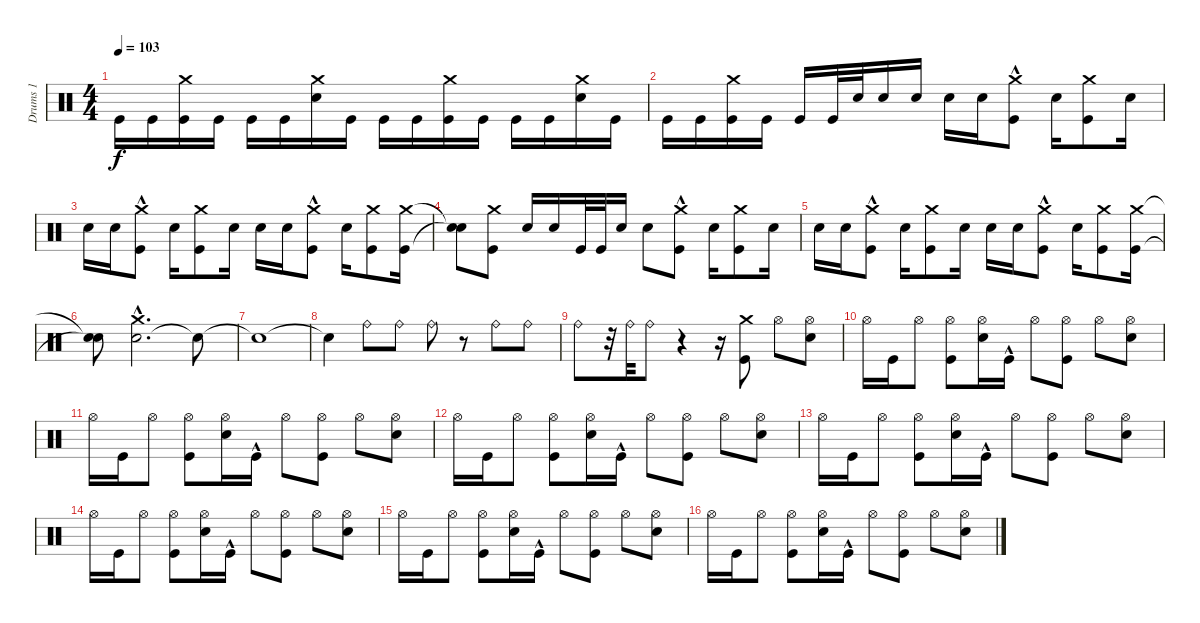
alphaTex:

\track ("Drums 1" "Drums 1") {instrument percussion}
\staff {score}
\articulation defaults
\ts (4 4)
\tempo 103
\clef neutral
\ks c "Kick (hit)".16{dy f} "Kick (hit)".16
("Kick (hit)" "Crash medium (hit)").16 "Kick (hit)".16 "Kick (hit)".16 "Kick (hit)".16 ("Electric Snare (hit)" "Crash medium (hit)").16 "Kick (hit)".16 "Kick (hit)".16 "Kick (hit)".16 ("Kick (hit)" "Crash medium (hit)").16 "Kick (hit)".16 "Kick (hit)".16 "Kick (hit)".16 ("Electric Snare (hit)" "Crash medium (hit)").16 "Kick (hit)".16 |
"Kick (hit)".16 "Kick (hit)".16 ("Kick (hit)" "Crash medium (hit)").16 "Kick (hit)".16 "Kick (hit)".16 "Kick (hit)".32 "Electric Snare (hit)".32 "Electric Snare (hit)".16 "Electric Snare (hit)".16 "Electric Snare (hit)".16 "Electric Snare (hit)".16 ("Kick (hit)"{hac} "Crash medium (hit)").8 "Electric Snare (hit)".16 ("Kick (hit)" "Crash medium (hit)").8 "Electric Snare (hit)".16 |
"Electric Snare (hit)".16 "Electric Snare (hit)".16 ("Kick (hit)"{hac} "Crash medium (hit)").8 "Electric Snare (hit)".16 ("Crash medium (hit)" "Kick (hit)").8 "Electric Snare (hit)".16 "Electric Snare (hit)".16 "Electric Snare (hit)".16 ("Kick (hit)"{hac} "Crash medium (hit)").8 "Electric Snare (hit)".16 ("Kick (hit)" "Crash medium (hit)").8 ("Kick (hit)" "Crash medium (hit)").16 |
("Snare (hit)"{t} "Snare (hit)"{t}).8 ("Kick (hit)" "Crash medium (hit)").8 "Electric Snare (hit)".16 "Electric Snare (hit)".16 "Kick (hit)".32 "Kick (hit)".32 "Electric Snare (hit)".16 "Electric Snare (hit)".8 ("Kick (hit)"{hac} "Crash medium (hit)").8 "Electric Snare (hit)".16 ("Kick (hit)" "Crash medium (hit)").8 "Electric Snare (hit)".16 |
"Electric Snare (hit)".16 "Electric Snare (hit)".16 ("Kick (hit)"{hac} "Crash medium (hit)").8 "Electric Snare (hit)".16 ("Crash medium (hit)" "Kick (hit)").8 "Electric Snare (hit)".16 "Electric Snare (hit)".16 "Electric Snare (hit)".16 ("Kick (hit)"{hac} "Crash medium (hit)").8 "Electric Snare (hit)".16 ("Kick (hit)" "Crash medium (hit)").8 ("Kick (hit)" "Crash medium (hit)").16 |
("Snare (hit)"{t} "Snare (hit)"{t}).8 ("Electric Snare (hit)" "Crash medium (hit)"{hac}).2{d} "Snare (hit)"{t}.8 |
"Snare (hit)"{t}.1 |
"Snare (hit)"{t}.4 "Ride (bell)".8 "Ride (bell)".8 "Ride (bell)".8 r.8 "Ride (bell)".8 "Ride (bell)".8 |
"Ride (bell)".8 r.32 "Ride (bell)".32 "Ride (bell)".8 r.4 r.16 ("Kick (hit)" "Crash medium (hit)").8 "Hi-Hat (open)".8 ("Electric Snare (hit)" "Hi-Hat (open)").8 |
"Hi-Hat (open)".16 "Kick (hit)".16 "Hi-Hat (open)".8 ("Kick (hit)" "Hi-Hat (open)").8 ("Electric Snare (hit)" "Hi-Hat (open)").16 "Kick (hit)"{hac}.16 "Hi-Hat (open)".8 ("Kick (hit)" "Hi-Hat (open)").8 "Hi-Hat (open)".8 ("Electric Snare (hit)" "Hi-Hat (open)").8 |
"Hi-Hat (open)".16 "Kick (hit)".16 "Hi-Hat (open)".8 ("Kick (hit)" "Hi-Hat (open)").8 ("Electric Snare (hit)" "Hi-Hat (open)").16 "Kick (hit)"{hac}.16 "Hi-Hat (open)".8 ("Kick (hit)" "Hi-Hat (open)").8 "Hi-Hat (open)".8 ("Electric Snare (hit)" "Hi-Hat (open)").8 |
"Hi-Hat (open)".16 "Kick (hit)".16 "Hi-Hat (open)".8 ("Kick (hit)" "Hi-Hat (open)").8 ("Electric Snare (hit)" "Hi-Hat (open)").16 "Kick (hit)"{hac}.16 "Hi-Hat (open)".8 ("Kick (hit)" "Hi-Hat (open)").8 "Hi-Hat (open)".8 ("Electric Snare (hit)" "Hi-Hat (open)").8 |
"Hi-Hat (open)".16 "Kick (hit)".16 "Hi-Hat (open)".8 ("Kick (hit)" "Hi-Hat (open)").8 ("Electric Snare (hit)" "Hi-Hat (open)").16 "Kick (hit)"{hac}.16 "Hi-Hat (open)".8 ("Kick (hit)" "Hi-Hat (open)").8 "Hi-Hat (open)".8 ("Electric Snare (hit)" "Hi-Hat (open)").8 |
"Hi-Hat (open)".16 "Kick (hit)".16 "Hi-Hat (open)".8 ("Kick (hit)" "Hi-Hat (open)").8 ("Electric Snare (hit)" "Hi-Hat (open)").16 "Kick (hit)"{hac}.16 "Hi-Hat (open)".8 ("Kick (hit)" "Hi-Hat (open)").8 "Hi-Hat (open)".8 ("Electric Snare (hit)" "Hi-Hat (open)").8 |
"Hi-Hat (open)".16 "Kick (hit)".16 "Hi-Hat (open)".8 ("Kick (hit)" "Hi-Hat (open)").8 ("Electric Snare (hit)" "Hi-Hat (open)").16 "Kick (hit)"{hac}.16 "Hi-Hat (open)".8 ("Kick (hit)" "Hi-Hat (open)").8 "Hi-Hat (open)".8 ("Electric Snare (hit)" "Hi-Hat (open)").8 |
"Hi-Hat (open)".16 "Kick (hit)".16 "Hi-Hat (open)".8 ("Kick (hit)" "Hi-Hat (open)").8 ("Electric Snare (hit)" "Hi-Hat (open)").16 "Kick (hit)"{hac}.16 "Hi-Hat (open)".8 ("Kick (hit)" "Hi-Hat (open)").8 "Hi-Hat (open)".8 ("Electric Snare (hit)" "Hi-Hat (open)").8
